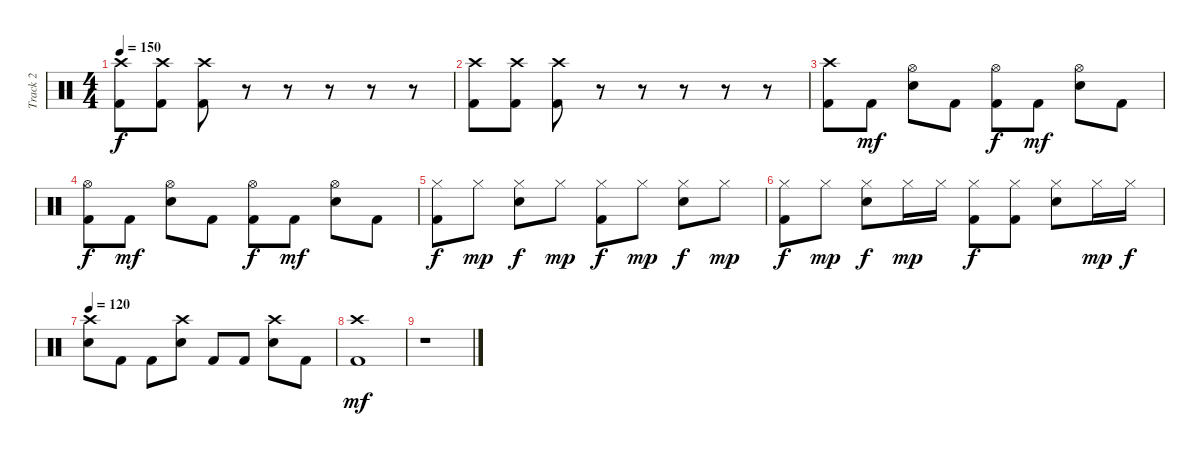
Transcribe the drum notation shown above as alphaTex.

\track ("Track 2" "Track 2") {instrument percussion}
\staff {score}
\articulation defaults
\ts (4 4)
\tempo 150
\clef neutral
\ks c
("Crash high (hit)" "Kick (hit) 2").8{dy f} ("Crash high (hit)" "Kick (hit) 2").8 ("Crash high (hit)" "Kick (hit) 2").8 r.8 r.8 r.8 r.8 r.8 |
("Crash high (hit)" "Kick (hit) 2").8 ("Crash high (hit)" "Kick (hit) 2").8 ("Crash high (hit)" "Kick (hit) 2").8 r.8 r.8 r.8 r.8 r.8 |
("Crash high (hit)" "Kick (hit) 2").8 "Kick (hit) 2".8{dy mf} ("Hi-Hat (open)" "Electric Snare (hit)").8 "Kick (hit) 2".8 ("Hi-Hat (open)" "Kick (hit) 2").8{dy f} "Kick (hit) 2".8{dy mf} ("Hi-Hat (open)" "Electric Snare (hit)").8 "Kick (hit) 2".8 |
("Hi-Hat (open)" "Kick (hit) 2").8{dy f} "Kick (hit) 2".8{dy mf} ("Hi-Hat (open)" "Electric Snare (hit)").8 "Kick (hit) 2".8 ("Hi-Hat (open)" "Kick (hit) 2").8{dy f} "Kick (hit) 2".8{dy mf} ("Hi-Hat (open)" "Electric Snare (hit)").8 "Kick (hit) 2".8 |
("Hi-Hat (closed)" "Kick (hit) 2").8{dy f} "Hi-Hat (closed)".8{dy mp} ("Hi-Hat (closed)" "Electric Snare (hit)").8{dy f} "Hi-Hat (closed)".8{dy mp} ("Hi-Hat (closed)" "Kick (hit) 2").8{dy f} "Hi-Hat (closed)".8{dy mp} ("Hi-Hat (closed)" "Electric Snare (hit)").8{dy f} "Hi-Hat (closed)".8{dy mp} |
("Hi-Hat (closed)" "Kick (hit) 2").8{dy f} "Hi-Hat (closed)".8{dy mp} ("Hi-Hat (closed)" "Electric Snare (hit)").8{dy f} "Hi-Hat (closed)".16{dy mp} "Hi-Hat (closed)".16 ("Hi-Hat (closed)" "Kick (hit) 2").8{dy f} ("Hi-Hat (closed)" "Kick (hit) 2").8 ("Hi-Hat (closed)" "Electric Snare (hit)").8 "Hi-Hat (closed)".16{dy mp} "Hi-Hat (closed)".16{dy f} |
\tempo 120
("Crash high (hit)" "Electric Snare (hit)").8 "Kick (hit) 2".8 "Kick (hit) 2".8 ("Crash high (hit)" "Electric Snare (hit)").8 "Kick (hit) 2".8 "Kick (hit) 2".8 ("Crash high (hit)" "Electric Snare (hit)").8 "Kick (hit) 2".8 |
("Crash high (hit)" "Kick (hit) 2").1{dy mf} |
r.1
